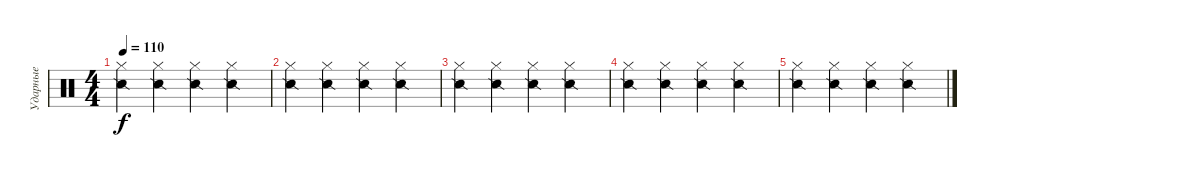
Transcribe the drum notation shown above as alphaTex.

\track ("Ударные" "Ударные") {instrument percussion}
\staff {score}
\articulation defaults
\ts (4 4)
\tempo 110
\clef neutral
\ks c
("Hi-Hat (closed)" "Snare (side stick) 2").4{dy f} ("Hi-Hat (closed)" "Snare (side stick) 2").4 ("Hi-Hat (closed)" "Snare (side stick) 2").4 ("Hi-Hat (closed)" "Snare (side stick) 2").4 |
("Hi-Hat (closed)" "Snare (side stick) 2").4 ("Hi-Hat (closed)" "Snare (side stick) 2").4 ("Hi-Hat (closed)" "Snare (side stick) 2").4 ("Hi-Hat (closed)" "Snare (side stick) 2").4 |
("Hi-Hat (closed)" "Snare (side stick) 2").4 ("Hi-Hat (closed)" "Snare (side stick) 2").4 ("Hi-Hat (closed)" "Snare (side stick) 2").4 ("Hi-Hat (closed)" "Snare (side stick) 2").4 |
("Hi-Hat (closed)" "Snare (side stick) 2").4 ("Hi-Hat (closed)" "Snare (side stick) 2").4 ("Hi-Hat (closed)" "Snare (side stick) 2").4 ("Hi-Hat (closed)" "Snare (side stick) 2").4 |
("Hi-Hat (closed)" "Snare (side stick) 2").4 ("Hi-Hat (closed)" "Snare (side stick) 2").4 ("Hi-Hat (closed)" "Snare (side stick) 2").4 ("Hi-Hat (closed)" "Snare (side stick) 2").4
